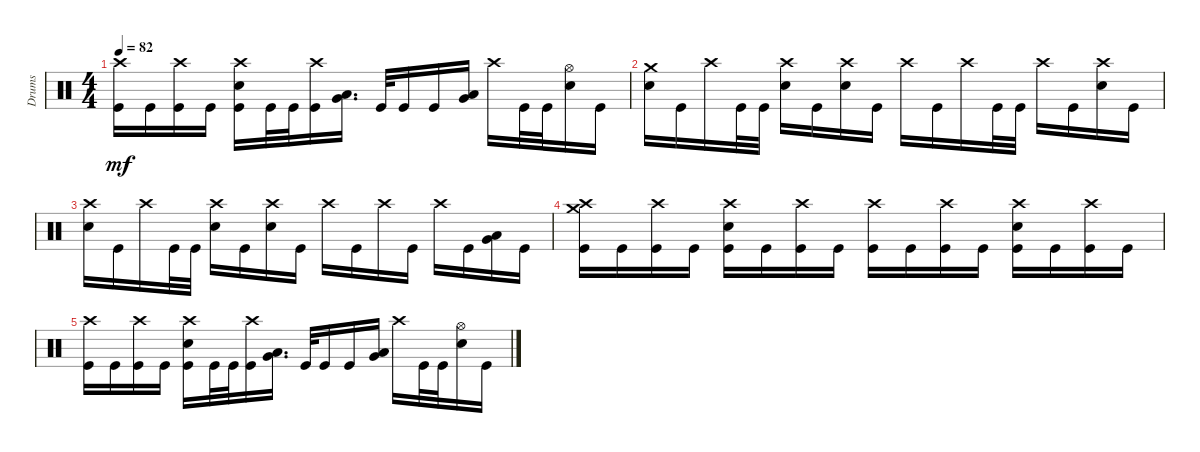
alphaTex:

\track ("Drums" "Drums") {instrument percussion bank 177}
\staff {score}
\articulation defaults
\ts (4 4)
\tempo 82
\clef neutral
\ks c
("Crash high (hit)" "Kick (hit)").16{dy mf} "Kick (hit)".16 ("Crash high (hit)" "Kick (hit)").16 "Kick (hit)".16 ("Crash high (hit)" "Snare (hit) 2" "Kick (hit)").16 "Kick (hit)".32 "Kick (hit)".32 ("Crash high (hit)" "Kick (hit)").16 ("Very Low Tom (hit)" "Low Floor Tom (hit)").16{d} "Kick (hit)".32 "Kick (hit)".16 "Kick (hit)".16 ("Low Tom (hit)" "Very Low Tom (hit)").16 "Crash high (hit)".16 "Kick (hit)".32 "Kick (hit)".32 ("Hi-Hat (open)" "Snare (hit) 2").16 "Kick (hit)".16 |
("Crash medium (hit)" "Snare (hit) 2").16 "Kick (hit)".16 "Crash high (hit)".16 "Kick (hit)".32 "Kick (hit)".32 ("Crash high (hit)" "Snare (hit) 2").16 "Kick (hit)".16 ("Crash high (hit)" "Snare (hit) 2").16 "Kick (hit)".16 "Crash high (hit)".16 "Kick (hit)".16 "Crash high (hit)".16 "Kick (hit)".32 "Kick (hit)".32 "Crash high (hit)".16 "Kick (hit)".16 ("Crash high (hit)" "Snare (hit) 2").16 "Kick (hit)".16 |
("Crash high (hit)" "Snare (hit) 2").16 "Kick (hit)".16 "Crash high (hit)".16 "Kick (hit)".32 "Kick (hit)".32 ("Crash high (hit)" "Snare (hit) 2").16 "Kick (hit)".16 ("Crash high (hit)" "Snare (hit) 2").16 "Kick (hit)".16 "Crash high (hit)".16 "Kick (hit)".16 "Crash high (hit)".16 "Kick (hit)".16 "Crash high (hit)".16 "Kick (hit)".16 ("Low Tom (hit)" "Very Low Tom (hit)").16 "Kick (hit)".16 |
("Crash high (hit)" "Crash medium (hit)" "Kick (hit)").16 "Kick (hit)".16 ("Crash high (hit)" "Kick (hit)").16 "Kick (hit)".16 ("Crash high (hit)" "Snare (hit) 2" "Kick (hit)").16 "Kick (hit)".16 ("Crash high (hit)" "Kick (hit)").16 "Kick (hit)".16 ("Crash high (hit)" "Kick (hit)").16 "Kick (hit)".16 ("Crash high (hit)" "Kick (hit)").16 "Kick (hit)".16 ("Crash high (hit)" "Snare (hit) 2" "Kick (hit)").16 "Kick (hit)".16 ("Crash high (hit)" "Kick (hit)").16 "Kick (hit)".16 |
("Crash high (hit)" "Kick (hit)").16 "Kick (hit)".16 ("Crash high (hit)" "Kick (hit)").16 "Kick (hit)".16 ("Crash high (hit)" "Snare (hit) 2" "Kick (hit)").16 "Kick (hit)".32 "Kick (hit)".32 ("Crash high (hit)" "Kick (hit)").16 ("Very Low Tom (hit)" "Low Floor Tom (hit)").16{d} "Kick (hit)".32 "Kick (hit)".16 "Kick (hit)".16 ("Low Tom (hit)" "Very Low Tom (hit)").16 "Crash high (hit)".16 "Kick (hit)".32 "Kick (hit)".32 ("Hi-Hat (open)" "Snare (hit) 2").16 "Kick (hit)".16
